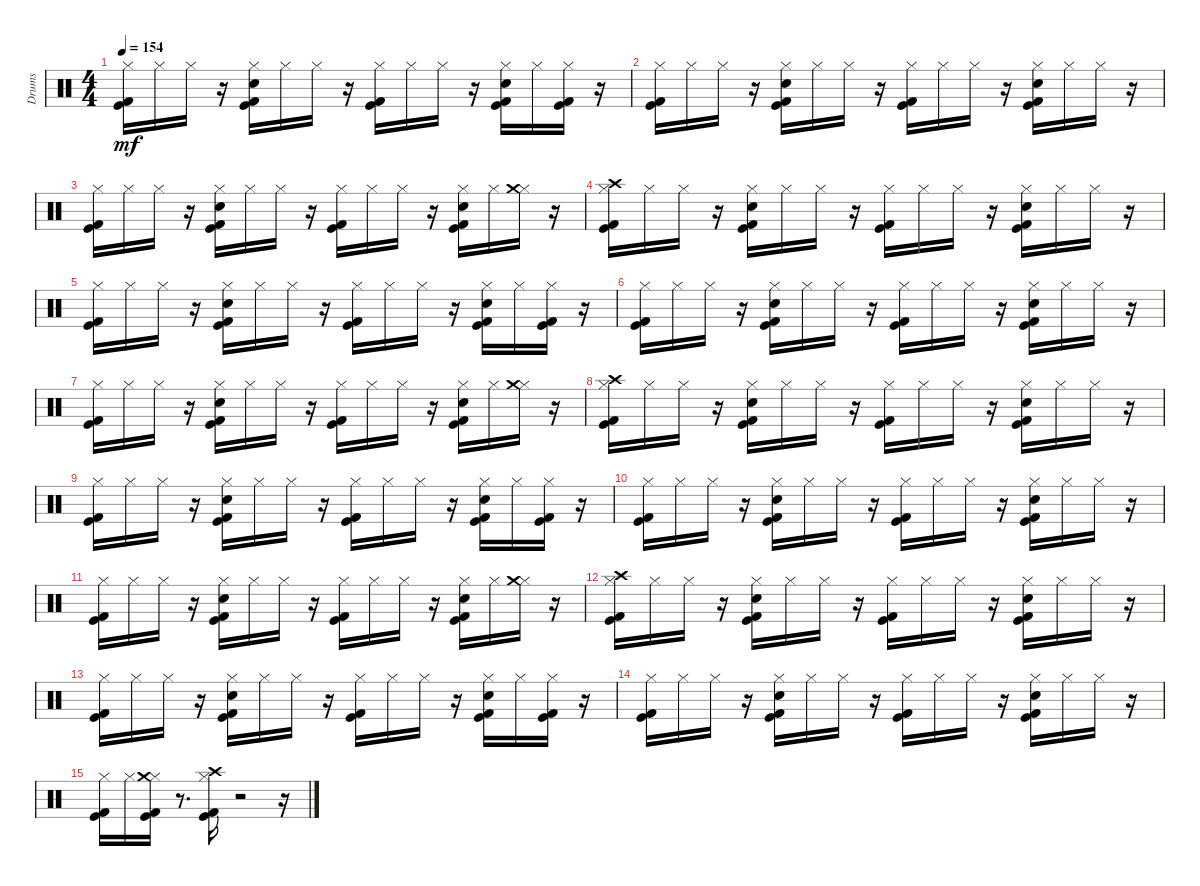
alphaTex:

\track ("Drums" "Drums") {instrument percussion}
\staff {score}
\articulation defaults
\ts (4 4)
\tempo 154
\clef neutral
\ks c
("Kick (hit)" "Kick (hit) 2" "Hi-Hat (closed)").16{dy mf} "Hi-Hat (closed)".16 "Hi-Hat (closed)".16 r.16 ("Kick (hit)" "Kick (hit) 2" "Electric Snare (hit)" "Hi-Hat (closed)").16 "Hi-Hat (closed)".16 "Hi-Hat (closed)".16 r.16 ("Kick (hit)" "Kick (hit) 2" "Hi-Hat (closed)").16 "Hi-Hat (closed)".16 "Hi-Hat (closed)".16 r.16 ("Kick (hit)" "Kick (hit) 2" "Electric Snare (hit)" "Hi-Hat (closed)").16 "Hi-Hat (closed)".16 ("Kick (hit)" "Kick (hit) 2" "Hi-Hat (closed)").16 r.16 |
("Kick (hit)" "Kick (hit) 2" "Hi-Hat (closed)").16 "Hi-Hat (closed)".16 "Hi-Hat (closed)".16 r.16 ("Kick (hit)" "Kick (hit) 2" "Electric Snare (hit)" "Hi-Hat (closed)").16 "Hi-Hat (closed)".16 "Hi-Hat (closed)".16 r.16 ("Kick (hit)" "Kick (hit) 2" "Hi-Hat (closed)").16 "Hi-Hat (closed)".16 "Hi-Hat (closed)".16 r.16 ("Kick (hit)" "Kick (hit) 2" "Electric Snare (hit)" "Hi-Hat (closed)").16 "Hi-Hat (closed)".16 "Hi-Hat (closed)".16 r.16 |
("Kick (hit)" "Kick (hit) 2" "Hi-Hat (closed)").16 "Hi-Hat (closed)".16 "Hi-Hat (closed)".16 r.16 ("Kick (hit)" "Kick (hit) 2" "Electric Snare (hit)" "Hi-Hat (closed)").16 "Hi-Hat (closed)".16 "Hi-Hat (closed)".16 r.16 ("Kick (hit)" "Kick (hit) 2" "Hi-Hat (closed)").16 "Hi-Hat (closed)".16 "Hi-Hat (closed)".16 r.16 ("Kick (hit)" "Kick (hit) 2" "Electric Snare (hit)" "Hi-Hat (closed)").16 "Hi-Hat (closed)".16 ("Hi-Hat (closed)" "Crash medium (hit)").16 r.16 |
("Kick (hit)" "Kick (hit) 2" "Hi-Hat (closed)" "Crash high (hit)").16 "Hi-Hat (closed)".16 "Hi-Hat (closed)".16 r.16 ("Kick (hit)" "Kick (hit) 2" "Electric Snare (hit)" "Hi-Hat (closed)").16 "Hi-Hat (closed)".16 "Hi-Hat (closed)".16 r.16 ("Kick (hit)" "Kick (hit) 2" "Hi-Hat (closed)").16 "Hi-Hat (closed)".16 "Hi-Hat (closed)".16 r.16 ("Kick (hit)" "Kick (hit) 2" "Electric Snare (hit)" "Hi-Hat (closed)").16 "Hi-Hat (closed)".16 "Hi-Hat (closed)".16 r.16 |
("Kick (hit)" "Kick (hit) 2" "Hi-Hat (closed)").16 "Hi-Hat (closed)".16 "Hi-Hat (closed)".16 r.16 ("Kick (hit)" "Kick (hit) 2" "Electric Snare (hit)" "Hi-Hat (closed)").16 "Hi-Hat (closed)".16 "Hi-Hat (closed)".16 r.16 ("Kick (hit)" "Kick (hit) 2" "Hi-Hat (closed)").16 "Hi-Hat (closed)".16 "Hi-Hat (closed)".16 r.16 ("Kick (hit)" "Kick (hit) 2" "Electric Snare (hit)" "Hi-Hat (closed)").16 "Hi-Hat (closed)".16 ("Kick (hit)" "Kick (hit) 2" "Hi-Hat (closed)").16 r.16 |
("Kick (hit)" "Kick (hit) 2" "Hi-Hat (closed)").16 "Hi-Hat (closed)".16 "Hi-Hat (closed)".16 r.16 ("Kick (hit)" "Kick (hit) 2" "Electric Snare (hit)" "Hi-Hat (closed)").16 "Hi-Hat (closed)".16 "Hi-Hat (closed)".16 r.16 ("Kick (hit)" "Kick (hit) 2" "Hi-Hat (closed)").16 "Hi-Hat (closed)".16 "Hi-Hat (closed)".16 r.16 ("Kick (hit)" "Kick (hit) 2" "Electric Snare (hit)" "Hi-Hat (closed)").16 "Hi-Hat (closed)".16 "Hi-Hat (closed)".16 r.16 |
("Kick (hit)" "Kick (hit) 2" "Hi-Hat (closed)").16 "Hi-Hat (closed)".16 "Hi-Hat (closed)".16 r.16 ("Kick (hit)" "Kick (hit) 2" "Electric Snare (hit)" "Hi-Hat (closed)").16 "Hi-Hat (closed)".16 "Hi-Hat (closed)".16 r.16 ("Kick (hit)" "Kick (hit) 2" "Hi-Hat (closed)").16 "Hi-Hat (closed)".16 "Hi-Hat (closed)".16 r.16 ("Kick (hit)" "Kick (hit) 2" "Electric Snare (hit)" "Hi-Hat (closed)").16 "Hi-Hat (closed)".16 ("Hi-Hat (closed)" "Crash medium (hit)").16 r.16 |
("Kick (hit)" "Kick (hit) 2" "Hi-Hat (closed)" "Crash high (hit)").16 "Hi-Hat (closed)".16 "Hi-Hat (closed)".16 r.16 ("Kick (hit)" "Kick (hit) 2" "Electric Snare (hit)" "Hi-Hat (closed)").16 "Hi-Hat (closed)".16 "Hi-Hat (closed)".16 r.16 ("Kick (hit)" "Kick (hit) 2" "Hi-Hat (closed)").16 "Hi-Hat (closed)".16 "Hi-Hat (closed)".16 r.16 ("Kick (hit)" "Kick (hit) 2" "Electric Snare (hit)" "Hi-Hat (closed)").16 "Hi-Hat (closed)".16 "Hi-Hat (closed)".16 r.16 |
("Kick (hit)" "Kick (hit) 2" "Hi-Hat (closed)").16 "Hi-Hat (closed)".16 "Hi-Hat (closed)".16 r.16 ("Kick (hit)" "Kick (hit) 2" "Electric Snare (hit)" "Hi-Hat (closed)").16 "Hi-Hat (closed)".16 "Hi-Hat (closed)".16 r.16 ("Kick (hit)" "Kick (hit) 2" "Hi-Hat (closed)").16 "Hi-Hat (closed)".16 "Hi-Hat (closed)".16 r.16 ("Kick (hit)" "Kick (hit) 2" "Electric Snare (hit)" "Hi-Hat (closed)").16 "Hi-Hat (closed)".16 ("Kick (hit)" "Kick (hit) 2" "Hi-Hat (closed)").16 r.16 |
("Kick (hit)" "Kick (hit) 2" "Hi-Hat (closed)").16 "Hi-Hat (closed)".16 "Hi-Hat (closed)".16 r.16 ("Kick (hit)" "Kick (hit) 2" "Electric Snare (hit)" "Hi-Hat (closed)").16 "Hi-Hat (closed)".16 "Hi-Hat (closed)".16 r.16 ("Kick (hit)" "Kick (hit) 2" "Hi-Hat (closed)").16 "Hi-Hat (closed)".16 "Hi-Hat (closed)".16 r.16 ("Kick (hit)" "Kick (hit) 2" "Electric Snare (hit)" "Hi-Hat (closed)").16 "Hi-Hat (closed)".16 "Hi-Hat (closed)".16 r.16 |
("Kick (hit)" "Kick (hit) 2" "Hi-Hat (closed)").16 "Hi-Hat (closed)".16 "Hi-Hat (closed)".16 r.16 ("Kick (hit)" "Kick (hit) 2" "Electric Snare (hit)" "Hi-Hat (closed)").16 "Hi-Hat (closed)".16 "Hi-Hat (closed)".16 r.16 ("Kick (hit)" "Kick (hit) 2" "Hi-Hat (closed)").16 "Hi-Hat (closed)".16 "Hi-Hat (closed)".16 r.16 ("Kick (hit)" "Kick (hit) 2" "Electric Snare (hit)" "Hi-Hat (closed)").16 "Hi-Hat (closed)".16 ("Hi-Hat (closed)" "Crash medium (hit)").16 r.16 |
("Kick (hit)" "Kick (hit) 2" "Hi-Hat (closed)" "Crash high (hit)").16 "Hi-Hat (closed)".16 "Hi-Hat (closed)".16 r.16 ("Kick (hit)" "Kick (hit) 2" "Electric Snare (hit)" "Hi-Hat (closed)").16 "Hi-Hat (closed)".16 "Hi-Hat (closed)".16 r.16 ("Kick (hit)" "Kick (hit) 2" "Hi-Hat (closed)").16 "Hi-Hat (closed)".16 "Hi-Hat (closed)".16 r.16 ("Kick (hit)" "Kick (hit) 2" "Electric Snare (hit)" "Hi-Hat (closed)").16 "Hi-Hat (closed)".16 "Hi-Hat (closed)".16 r.16 |
("Kick (hit)" "Kick (hit) 2" "Hi-Hat (closed)").16 "Hi-Hat (closed)".16 "Hi-Hat (closed)".16 r.16 ("Kick (hit)" "Kick (hit) 2" "Electric Snare (hit)" "Hi-Hat (closed)").16 "Hi-Hat (closed)".16 "Hi-Hat (closed)".16 r.16 ("Kick (hit)" "Kick (hit) 2" "Hi-Hat (closed)").16 "Hi-Hat (closed)".16 "Hi-Hat (closed)".16 r.16 ("Kick (hit)" "Kick (hit) 2" "Electric Snare (hit)" "Hi-Hat (closed)").16 "Hi-Hat (closed)".16 ("Kick (hit)" "Kick (hit) 2" "Hi-Hat (closed)").16 r.16 |
("Kick (hit)" "Kick (hit) 2" "Hi-Hat (closed)").16 "Hi-Hat (closed)".16 "Hi-Hat (closed)".16 r.16 ("Kick (hit)" "Kick (hit) 2" "Electric Snare (hit)" "Hi-Hat (closed)").16 "Hi-Hat (closed)".16 "Hi-Hat (closed)".16 r.16 ("Kick (hit)" "Kick (hit) 2" "Hi-Hat (closed)").16 "Hi-Hat (closed)".16 "Hi-Hat (closed)".16 r.16 ("Kick (hit)" "Kick (hit) 2" "Electric Snare (hit)" "Hi-Hat (closed)").16 "Hi-Hat (closed)".16 "Hi-Hat (closed)".16 r.16 |
("Kick (hit)" "Kick (hit) 2" "Hi-Hat (closed)").16 "Hi-Hat (closed)".16 ("Kick (hit)" "Kick (hit) 2" "Hi-Hat (closed)" "Crash medium (hit)").16 r.8{d} ("Kick (hit)" "Kick (hit) 2" "Hi-Hat (closed)" "Crash high (hit)").16 r.2 r.16
